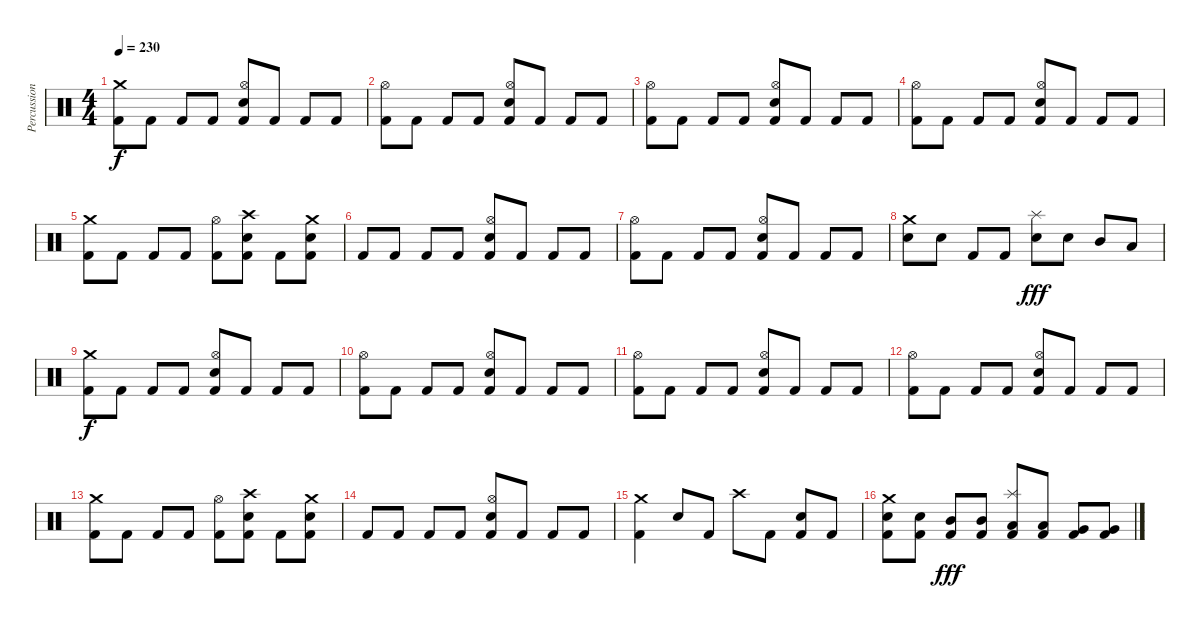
\track ("Percussions" "Percussion") {instrument percussion}
\staff {score}
\articulation defaults
\ts (4 4)
\tempo 230
\clef neutral
\ks c
("Crash medium (hit)" "Kick (hit) 2").8{dy f volume 13} "Kick (hit) 2".8 "Kick (hit) 2".8 "Kick (hit) 2".8 ("Hi-Hat (open)" "Electric Snare (hit)" "Kick (hit) 2").8 "Kick (hit) 2".8 "Kick (hit) 2".8 "Kick (hit) 2".8 |
("Hi-Hat (open)" "Kick (hit) 2").8 "Kick (hit) 2".8 "Kick (hit) 2".8 "Kick (hit) 2".8 ("Hi-Hat (open)" "Electric Snare (hit)" "Kick (hit) 2").8 "Kick (hit) 2".8 "Kick (hit) 2".8 "Kick (hit) 2".8 |
("Hi-Hat (open)" "Kick (hit) 2").8 "Kick (hit) 2".8 "Kick (hit) 2".8 "Kick (hit) 2".8 ("Hi-Hat (open)" "Electric Snare (hit)" "Kick (hit) 2").8 "Kick (hit) 2".8 "Kick (hit) 2".8 "Kick (hit) 2".8 |
("Hi-Hat (open)" "Kick (hit) 2").8 "Kick (hit) 2".8 "Kick (hit) 2".8 "Kick (hit) 2".8 ("Hi-Hat (open)" "Electric Snare (hit)" "Kick (hit) 2").8 "Kick (hit) 2".8 "Kick (hit) 2".8 "Kick (hit) 2".8 |
("Crash medium (hit)" "Kick (hit) 2").8 "Kick (hit) 2".8 "Kick (hit) 2".8 "Kick (hit) 2".8 ("Hi-Hat (open)" "Kick (hit) 2").8 ("Crash high (hit)" "Electric Snare (hit)" "Kick (hit) 2").8 "Kick (hit) 2".8 ("Crash medium (hit)" "Electric Snare (hit)" "Kick (hit) 2").8 |
"Kick (hit) 2".8 "Kick (hit) 2".8 "Kick (hit) 2".8 "Kick (hit) 2".8 ("Hi-Hat (open)" "Electric Snare (hit)" "Kick (hit) 2").8 "Kick (hit) 2".8 "Kick (hit) 2".8 "Kick (hit) 2".8 |
("Hi-Hat (open)" "Kick (hit) 2").8 "Kick (hit) 2".8 "Kick (hit) 2".8 "Kick (hit) 2".8 ("Hi-Hat (open)" "Electric Snare (hit)" "Kick (hit) 2").8 "Kick (hit) 2".8 "Kick (hit) 2".8 "Kick (hit) 2".8 |
("Crash medium (hit)" "Electric Snare (hit)").8 "Electric Snare (hit)".8 "Kick (hit) 2".8 "Kick (hit) 2".8 ("Splash (hit)" "Electric Snare (hit)").8{dy fff} "Electric Snare (hit)".8 "Mid Tom (hit)".8 "Low Tom (hit)".8 |
("Crash medium (hit)" "Kick (hit) 2").8{dy f volume 13} "Kick (hit) 2".8 "Kick (hit) 2".8 "Kick (hit) 2".8 ("Hi-Hat (open)" "Electric Snare (hit)" "Kick (hit) 2").8 "Kick (hit) 2".8 "Kick (hit) 2".8 "Kick (hit) 2".8 |
("Hi-Hat (open)" "Kick (hit) 2").8 "Kick (hit) 2".8 "Kick (hit) 2".8 "Kick (hit) 2".8 ("Hi-Hat (open)" "Electric Snare (hit)" "Kick (hit) 2").8 "Kick (hit) 2".8 "Kick (hit) 2".8 "Kick (hit) 2".8 |
("Hi-Hat (open)" "Kick (hit) 2").8 "Kick (hit) 2".8 "Kick (hit) 2".8 "Kick (hit) 2".8 ("Hi-Hat (open)" "Electric Snare (hit)" "Kick (hit) 2").8 "Kick (hit) 2".8 "Kick (hit) 2".8 "Kick (hit) 2".8 |
("Hi-Hat (open)" "Kick (hit) 2").8 "Kick (hit) 2".8 "Kick (hit) 2".8 "Kick (hit) 2".8 ("Hi-Hat (open)" "Electric Snare (hit)" "Kick (hit) 2").8 "Kick (hit) 2".8 "Kick (hit) 2".8 "Kick (hit) 2".8 |
("Crash medium (hit)" "Kick (hit) 2").8 "Kick (hit) 2".8 "Kick (hit) 2".8 "Kick (hit) 2".8 ("Hi-Hat (open)" "Kick (hit) 2").8 ("Crash high (hit)" "Electric Snare (hit)" "Kick (hit) 2").8 "Kick (hit) 2".8 ("Crash medium (hit)" "Electric Snare (hit)" "Kick (hit) 2").8 |
"Kick (hit) 2".8 "Kick (hit) 2".8 "Kick (hit) 2".8 "Kick (hit) 2".8 ("Hi-Hat (open)" "Electric Snare (hit)" "Kick (hit) 2").8 "Kick (hit) 2".8 "Kick (hit) 2".8 "Kick (hit) 2".8 |
("Crash medium (hit)" "Kick (hit) 2").4 "Electric Snare (hit)".8 "Kick (hit) 2".8 "Crash high (hit)".8 "Kick (hit) 2".8 ("Electric Snare (hit)" "Kick (hit) 2").8 "Kick (hit) 2".8 |
("Crash medium (hit)" "Electric Snare (hit)" "Kick (hit) 2").8 ("Electric Snare (hit)" "Kick (hit) 2").8 ("Mid Tom (hit)" "Kick (hit) 2").8{dy fff} ("Mid Tom (hit)" "Kick (hit) 2").8 ("Splash (hit)" "Low Tom (hit)" "Kick (hit) 2").8 ("Low Tom (hit)" "Kick (hit) 2").8 ("Very Low Tom (hit)" "Kick (hit) 2").8 ("Very Low Tom (hit)" "Kick (hit) 2").8
